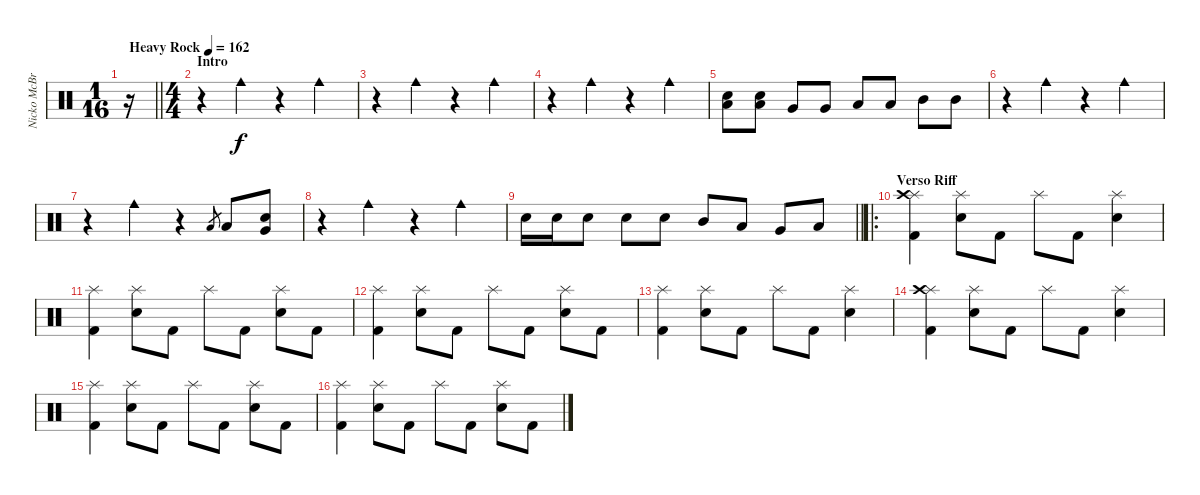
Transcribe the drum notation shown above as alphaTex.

\track ("Nicko McBrain" "Nicko McBr") {instrument percussion}
\staff {score}
\articulation defaults
\ts (1 16)
\tempo (162 "Heavy Rock")
\clef neutral
\barLineRight lightlight
\ks c
r.16{dy f} |
\ts (4 4)
\section ("" "Intro")
r.4 "Cowbell medium (hit)".4 r.4 "Cowbell medium (hit)".4 |
r.4 "Cowbell medium (hit)".4 r.4 "Cowbell medium (hit)".4 |
r.4 "Cowbell medium (hit)".4 r.4 "Cowbell medium (hit)".4 |
("Electric Snare (hit)" "Low Floor Tom (hit)").8 ("Electric Snare (hit)" "Low Floor Tom (hit)").8 "Very Low Tom (hit)".8 "Very Low Tom (hit)".8 "Low Tom (hit)".8 "Low Tom (hit)".8 "Mid Tom (hit)".8 "Mid Tom (hit)".8 |
r.4 "Cowbell medium (hit)".4 r.4 "Cowbell medium (hit)".4 |
r.4 "Cowbell medium (hit)".4 r.4 "Low Tom (hit)".8{gr} "Low Tom (hit)".8 ("Very Low Tom (hit)" "Electric Snare (hit)").8 |
r.4 "Cowbell medium (hit)".4 r.4 "Cowbell medium (hit)".4 |
\barLineRight lightlight "Electric Snare (hit)".16 "Electric Snare (hit)".16 "Electric Snare (hit)".8 "Electric Snare (hit)".8 "Electric Snare (hit)".8 "Mid Tom (hit)".8 "Low Tom (hit)".8 "Very Low Tom (hit)".8 "Low Floor Tom (hit)".8
|
\ro
\section ("" "Verso Riff")
("Kick (hit) 2" "Splash (hit)" "Crash high (hit)").4 ("Electric Snare (hit)" "Splash (hit)").8 "Kick (hit) 2".8 "Splash (hit)".8 "Kick (hit) 2".8 ("Electric Snare (hit)" "Splash (hit)").4 |
("Kick (hit) 2" "Splash (hit)").4 ("Electric Snare (hit)" "Splash (hit)").8 "Kick (hit) 2".8 "Splash (hit)".8 "Kick (hit) 2".8 ("Electric Snare (hit)" "Splash (hit)").8 "Kick (hit) 2".8 |
("Kick (hit) 2" "Splash (hit)").4 ("Electric Snare (hit)" "Splash (hit)").8 "Kick (hit) 2".8 "Splash (hit)".8 "Kick (hit) 2".8 ("Electric Snare (hit)" "Splash (hit)").8 "Kick (hit) 2".8 |
("Kick (hit) 2" "Splash (hit)").4 ("Electric Snare (hit)" "Splash (hit)").8 "Kick (hit) 2".8 "Splash (hit)".8 "Kick (hit) 2".8 ("Electric Snare (hit)" "Splash (hit)").4 |
("Kick (hit) 2" "Splash (hit)" "Crash high (hit)").4 ("Electric Snare (hit)" "Splash (hit)").8 "Kick (hit) 2".8 "Splash (hit)".8 "Kick (hit) 2".8 ("Electric Snare (hit)" "Splash (hit)").4 |
("Kick (hit) 2" "Splash (hit)").4 ("Electric Snare (hit)" "Splash (hit)").8 "Kick (hit) 2".8 "Splash (hit)".8 "Kick (hit) 2".8 ("Electric Snare (hit)" "Splash (hit)").8 "Kick (hit) 2".8 |
("Kick (hit) 2" "Splash (hit)").4 ("Electric Snare (hit)" "Splash (hit)").8 "Kick (hit) 2".8 "Splash (hit)".8 "Kick (hit) 2".8 ("Electric Snare (hit)" "Splash (hit)").8 "Kick (hit) 2".8
